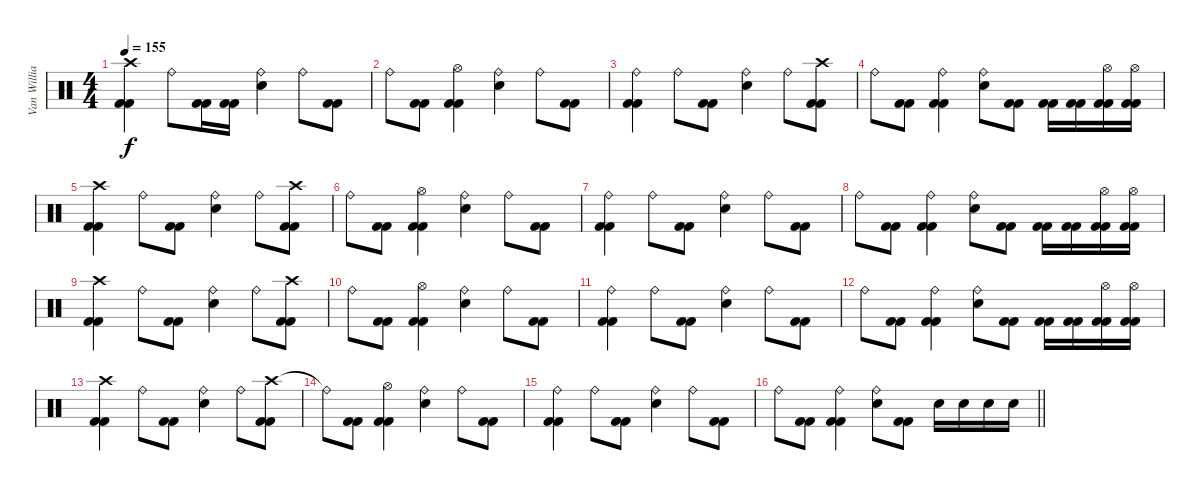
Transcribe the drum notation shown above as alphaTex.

\track ("Van Williams" "Van Willia") {instrument percussion}
\staff {score}
\articulation defaults
\ts (4 4)
\tempo 155
\clef neutral
\ks c
("Crash high (hit)" "Kick (hit) 2" "Kick (hit) 2").4{dy f} "Ride (bell)".8 ("Kick (hit) 2" "Kick (hit) 2").16 ("Kick (hit) 2" "Kick (hit) 2").16 ("Ride (bell)" "Electric Snare (hit)").4 "Ride (bell)".8 ("Kick (hit) 2" "Kick (hit) 2").8 |
"Ride (bell)".8 ("Kick (hit) 2" "Kick (hit) 2").8 ("Hi-Hat (open)" "Kick (hit) 2" "Kick (hit) 2").4 ("Ride (bell)" "Electric Snare (hit)").4 "Ride (bell)".8 ("Kick (hit) 2" "Kick (hit) 2").8 |
("Ride (bell)" "Kick (hit) 2" "Kick (hit) 2").4 "Ride (bell)".8 ("Kick (hit) 2" "Kick (hit) 2").8 ("Ride (bell)" "Electric Snare (hit)").4 "Ride (bell)".8 ("Crash high (hit)" "Kick (hit) 2" "Kick (hit) 2").8 |
"Ride (bell)".8 ("Kick (hit) 2" "Kick (hit) 2").8 ("Ride (bell)" "Kick (hit) 2" "Kick (hit) 2").4 ("Ride (bell)" "Electric Snare (hit)").8 ("Kick (hit) 2" "Kick (hit) 2").8 ("Kick (hit) 2" "Kick (hit) 2").16 ("Kick (hit) 2" "Kick (hit) 2").16 ("Hi-Hat (open)" "Kick (hit) 2" "Kick (hit) 2").16 ("Hi-Hat (open)" "Kick (hit) 2" "Kick (hit) 2").16 |
("Crash high (hit)" "Kick (hit) 2" "Kick (hit) 2").4 "Ride (bell)".8 ("Kick (hit) 2" "Kick (hit) 2").8 ("Ride (bell)" "Electric Snare (hit)").4 "Ride (bell)".8 ("Crash high (hit)" "Kick (hit) 2" "Kick (hit) 2").8 |
"Ride (bell)".8 ("Kick (hit) 2" "Kick (hit) 2").8 ("Hi-Hat (open)" "Kick (hit) 2" "Kick (hit) 2").4 ("Ride (bell)" "Electric Snare (hit)").4 "Ride (bell)".8 ("Kick (hit) 2" "Kick (hit) 2").8 |
("Ride (bell)" "Kick (hit) 2" "Kick (hit) 2").4 "Ride (bell)".8 ("Kick (hit) 2" "Kick (hit) 2").8 ("Ride (bell)" "Electric Snare (hit)").4 "Ride (bell)".8 ("Kick (hit) 2" "Kick (hit) 2").8 |
"Ride (bell)".8 ("Kick (hit) 2" "Kick (hit) 2").8 ("Ride (bell)" "Kick (hit) 2" "Kick (hit) 2").4 ("Ride (bell)" "Electric Snare (hit)").8 ("Kick (hit) 2" "Kick (hit) 2").8 ("Kick (hit) 2" "Kick (hit) 2").16 ("Kick (hit) 2" "Kick (hit) 2").16 ("Hi-Hat (open)" "Kick (hit) 2" "Kick (hit) 2").16 ("Hi-Hat (open)" "Kick (hit) 2" "Kick (hit) 2").16 |
("Crash high (hit)" "Kick (hit) 2" "Kick (hit) 2").4 "Ride (bell)".8 ("Kick (hit) 2" "Kick (hit) 2").8 ("Ride (bell)" "Electric Snare (hit)").4 "Ride (bell)".8 ("Crash high (hit)" "Kick (hit) 2" "Kick (hit) 2").8 |
"Ride (bell)".8 ("Kick (hit) 2" "Kick (hit) 2").8 ("Hi-Hat (open)" "Kick (hit) 2" "Kick (hit) 2").4 ("Ride (bell)" "Electric Snare (hit)").4 "Ride (bell)".8 ("Kick (hit) 2" "Kick (hit) 2").8 |
("Ride (bell)" "Kick (hit) 2" "Kick (hit) 2").4 "Ride (bell)".8 ("Kick (hit) 2" "Kick (hit) 2").8 ("Ride (bell)" "Electric Snare (hit)").4 "Ride (bell)".8 ("Kick (hit) 2" "Kick (hit) 2").8 |
"Ride (bell)".8 ("Kick (hit) 2" "Kick (hit) 2").8 ("Ride (bell)" "Kick (hit) 2" "Kick (hit) 2").4 ("Ride (bell)" "Electric Snare (hit)").8 ("Kick (hit) 2" "Kick (hit) 2").8 ("Kick (hit) 2" "Kick (hit) 2").16 ("Kick (hit) 2" "Kick (hit) 2").16 ("Hi-Hat (open)" "Kick (hit) 2" "Kick (hit) 2").16 ("Hi-Hat (open)" "Kick (hit) 2" "Kick (hit) 2").16 |
("Crash high (hit)" "Kick (hit) 2" "Kick (hit) 2").4 "Ride (bell)".8 ("Kick (hit) 2" "Kick (hit) 2").8 ("Ride (bell)" "Electric Snare (hit)").4 "Ride (bell)".8 ("Crash high (hit)" "Kick (hit) 2" "Kick (hit) 2").8 |
"Ride (bell)"{t}.8 ("Kick (hit) 2" "Kick (hit) 2").8 ("Hi-Hat (open)" "Kick (hit) 2" "Kick (hit) 2").4 ("Ride (bell)" "Electric Snare (hit)").4 "Ride (bell)".8 ("Kick (hit) 2" "Kick (hit) 2").8 |
("Ride (bell)" "Kick (hit) 2" "Kick (hit) 2").4 "Ride (bell)".8 ("Kick (hit) 2" "Kick (hit) 2").8 ("Ride (bell)" "Electric Snare (hit)").4 "Ride (bell)".8 ("Kick (hit) 2" "Kick (hit) 2").8 |
\barLineRight lightlight "Ride (bell)".8
("Kick (hit) 2" "Kick (hit) 2").8 ("Ride (bell)" "Kick (hit) 2" "Kick (hit) 2").4 ("Ride (bell)" "Electric Snare (hit)").8 ("Kick (hit) 2" "Kick (hit) 2").8 "Electric Snare (hit)".16 "Electric Snare (hit)".16 "Electric Snare (hit)".16 "Electric Snare (hit)".16
